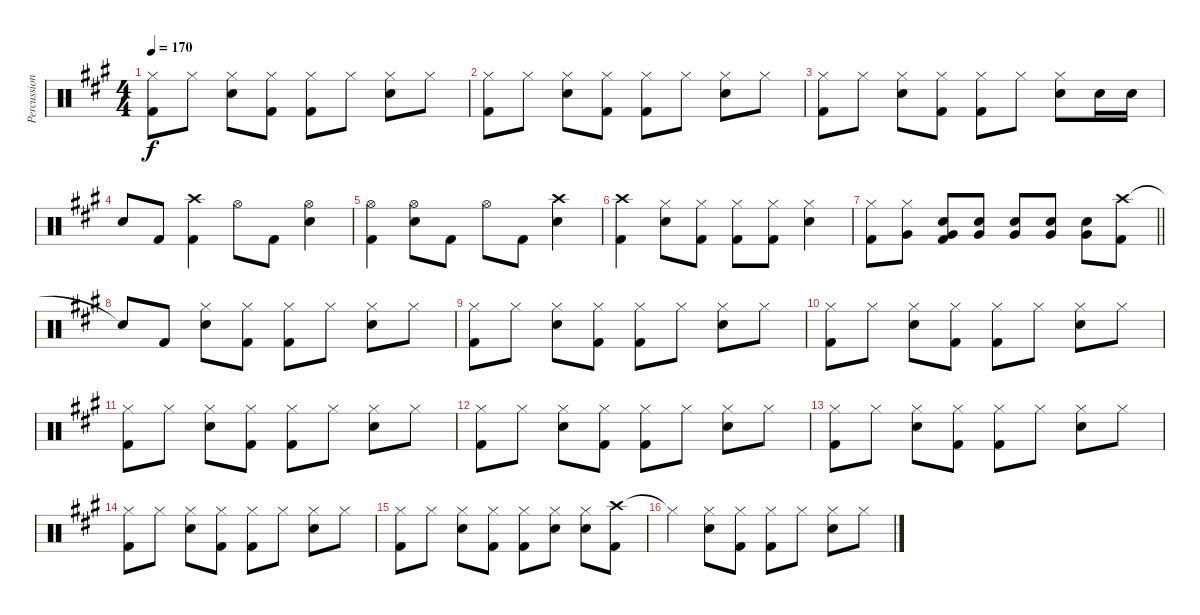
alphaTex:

\track ("Percussion" "Percussion") {instrument percussion}
\staff {score}
\articulation defaults
\ts (4 4)
\tempo 170
\clef neutral
\ks a
("Hi-Hat (closed)" "Kick (hit) 2").8{dy f} "Hi-Hat (closed)".8 ("Hi-Hat (closed)" "Snare (hit) 2").8 ("Hi-Hat (closed)" "Kick (hit) 2").8 ("Hi-Hat (closed)" "Kick (hit) 2").8 "Hi-Hat (closed)".8 ("Hi-Hat (closed)" "Snare (hit) 2").8 "Hi-Hat (closed)".8 |
("Hi-Hat (closed)" "Kick (hit) 2").8 "Hi-Hat (closed)".8 ("Hi-Hat (closed)" "Snare (hit) 2").8 ("Hi-Hat (closed)" "Kick (hit) 2").8 ("Hi-Hat (closed)" "Kick (hit) 2").8 "Hi-Hat (closed)".8 ("Hi-Hat (closed)" "Snare (hit) 2").8 "Hi-Hat (closed)".8 |
("Hi-Hat (closed)" "Kick (hit) 2").8 "Hi-Hat (closed)".8 ("Hi-Hat (closed)" "Snare (hit) 2").8 ("Hi-Hat (closed)" "Kick (hit) 2").8 ("Hi-Hat (closed)" "Kick (hit) 2").8 "Hi-Hat (closed)".8 ("Hi-Hat (closed)" "Snare (hit) 2").8 "Snare (hit) 2".16 "Snare (hit) 2".16 |
"Snare (hit) 2".8 "Kick (hit) 2".8 ("Crash high (hit)" "Kick (hit) 2").4 "Hi-Hat (open)".8 "Kick (hit) 2".8 ("Hi-Hat (open)" "Snare (hit) 2").4 |
("Hi-Hat (open)" "Kick (hit) 2").4 ("Hi-Hat (open)" "Snare (hit) 2").8 "Kick (hit) 2".8 "Hi-Hat (open)".8 "Kick (hit) 2".8 ("Crash high (hit)" "Snare (hit) 2").4 |
("Crash high (hit)" "Kick (hit) 2").4 ("Hi-Hat (closed)" "Snare (hit) 2").8 ("Hi-Hat (closed)" "Kick (hit) 2").8 ("Hi-Hat (closed)" "Kick (hit) 2").8 ("Hi-Hat (closed)" "Kick (hit) 2").8 ("Hi-Hat (closed)" "Snare (hit) 2").4 |
\barLineRight lightlight
("Hi-Hat (closed)" "Kick (hit) 2").8 ("Hi-Hat (closed)" "Very Low Tom (hit)").8 ("Snare (hit) 2" "Very Low Tom (hit)" "Kick (hit) 2").8 ("Snare (hit) 2" "Very Low Tom (hit)").8 ("Snare (hit) 2" "Very Low Tom (hit)").8 ("Snare (hit) 2" "Very Low Tom (hit)").8 ("Snare (hit) 2" "Very Low Tom (hit)").8 ("Crash high (hit)" "Kick (hit) 2").8 |
"Snare (hit)"{t}.8 "Kick (hit) 2".8 ("Hi-Hat (closed)" "Snare (hit) 2").8 ("Hi-Hat (closed)" "Kick (hit) 2").8 ("Hi-Hat (closed)" "Kick (hit) 2").8 "Hi-Hat (closed)".8 ("Hi-Hat (closed)" "Snare (hit) 2").8 "Hi-Hat (closed)".8 |
("Hi-Hat (closed)" "Kick (hit) 2").8 "Hi-Hat (closed)".8 ("Hi-Hat (closed)" "Snare (hit) 2").8 ("Hi-Hat (closed)" "Kick (hit) 2").8 ("Hi-Hat (closed)" "Kick (hit) 2").8 "Hi-Hat (closed)".8 ("Hi-Hat (closed)" "Snare (hit) 2").8 "Hi-Hat (closed)".8 |
("Hi-Hat (closed)" "Kick (hit) 2").8 "Hi-Hat (closed)".8 ("Hi-Hat (closed)" "Snare (hit) 2").8 ("Hi-Hat (closed)" "Kick (hit) 2").8 ("Hi-Hat (closed)" "Kick (hit) 2").8 "Hi-Hat (closed)".8 ("Hi-Hat (closed)" "Snare (hit) 2").8 "Hi-Hat (closed)".8 |
("Hi-Hat (closed)" "Kick (hit) 2").8 "Hi-Hat (closed)".8 ("Hi-Hat (closed)" "Snare (hit) 2").8 ("Hi-Hat (closed)" "Kick (hit) 2").8 ("Hi-Hat (closed)" "Kick (hit) 2").8 "Hi-Hat (closed)".8 ("Hi-Hat (closed)" "Snare (hit) 2").8 "Hi-Hat (closed)".8 |
("Hi-Hat (closed)" "Kick (hit) 2").8 "Hi-Hat (closed)".8 ("Hi-Hat (closed)" "Snare (hit) 2").8 ("Hi-Hat (closed)" "Kick (hit) 2").8 ("Hi-Hat (closed)" "Kick (hit) 2").8 "Hi-Hat (closed)".8 ("Hi-Hat (closed)" "Snare (hit) 2").8 "Hi-Hat (closed)".8 |
("Hi-Hat (closed)" "Kick (hit) 2").8 "Hi-Hat (closed)".8 ("Hi-Hat (closed)" "Snare (hit) 2").8 ("Hi-Hat (closed)" "Kick (hit) 2").8 ("Hi-Hat (closed)" "Kick (hit) 2").8 "Hi-Hat (closed)".8 ("Hi-Hat (closed)" "Snare (hit) 2").8 "Hi-Hat (closed)".8 |
("Hi-Hat (closed)" "Kick (hit) 2").8 "Hi-Hat (closed)".8 ("Hi-Hat (closed)" "Snare (hit) 2").8 ("Hi-Hat (closed)" "Kick (hit) 2").8 ("Hi-Hat (closed)" "Kick (hit) 2").8 "Hi-Hat (closed)".8 ("Hi-Hat (closed)" "Snare (hit) 2").8 "Hi-Hat (closed)".8 |
("Hi-Hat (closed)" "Kick (hit) 2").8 "Hi-Hat (closed)".8 ("Hi-Hat (closed)" "Snare (hit) 2").8 ("Hi-Hat (closed)" "Kick (hit) 2").8 ("Hi-Hat (closed)" "Kick (hit) 2").8 ("Hi-Hat (closed)" "Snare (hit) 2").8 ("Hi-Hat (closed)" "Snare (hit) 2").8 ("Crash high (hit)" "Kick (hit) 2").8 |
"Hi-Hat (closed)"{t}.4 ("Hi-Hat (closed)" "Snare (hit) 2").8 ("Hi-Hat (closed)" "Kick (hit) 2").8 ("Hi-Hat (closed)" "Kick (hit) 2").8 "Hi-Hat (closed)".8 ("Hi-Hat (closed)" "Snare (hit) 2").8 "Hi-Hat (closed)".8
